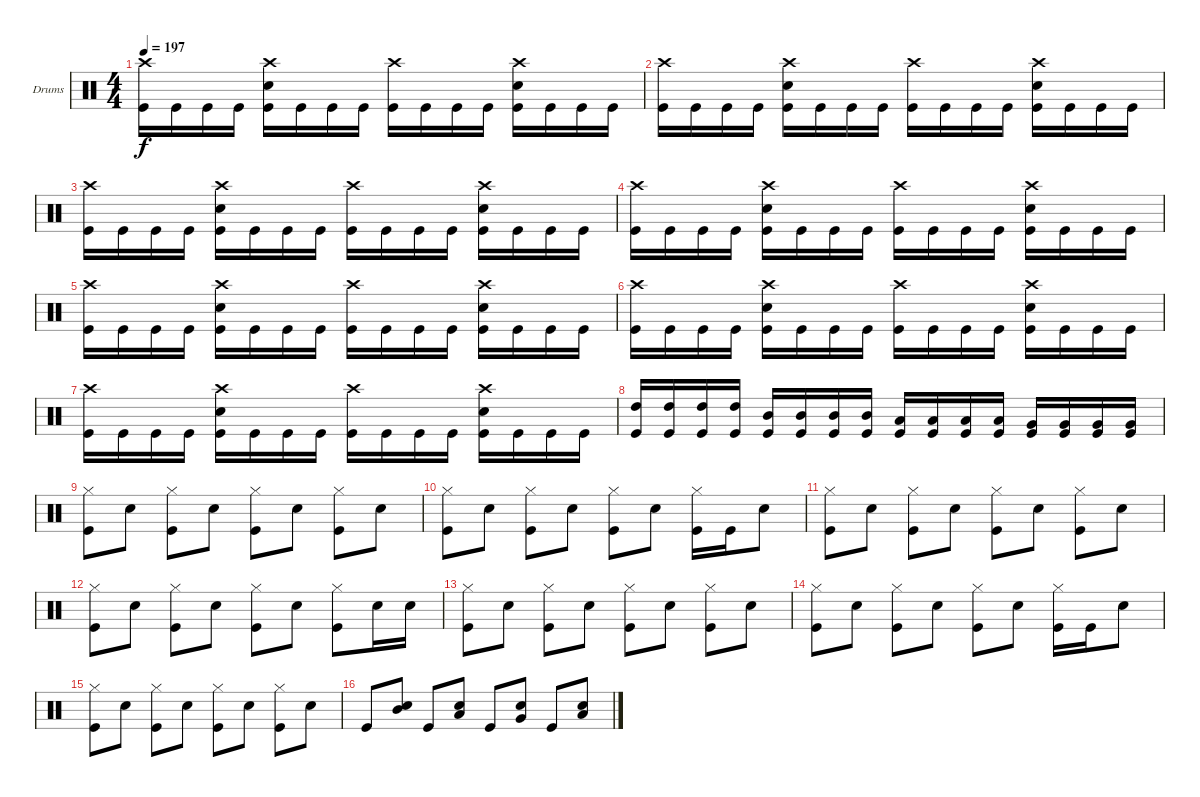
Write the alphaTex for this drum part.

\bracketExtendMode groupsimilarinstruments
\firstSystemTrackNameOrientation horizontal
\otherSystemsTrackNameOrientation horizontal
\track ("Drumkit" "Drums") {instrument percussion}
\staff {score}
\articulation defaults
\ts (4 4)
\tempo 197
\clef neutral
\ks c
("Crash high (hit)" "Kick (hit)").16{dy f} "Kick (hit)".16 "Kick (hit)".16 "Kick (hit)".16 ("Crash high (hit)" "Snare (hit) 2" "Kick (hit)").16 "Kick (hit)".16 "Kick (hit)".16 "Kick (hit)".16 ("Crash high (hit)" "Kick (hit)").16 "Kick (hit)".16 "Kick (hit)".16 "Kick (hit)".16 ("Crash high (hit)" "Snare (hit) 2" "Kick (hit)").16 "Kick (hit)".16 "Kick (hit)".16 "Kick (hit)".16 |
("Crash high (hit)" "Kick (hit)").16 "Kick (hit)".16 "Kick (hit)".16 "Kick (hit)".16 ("Crash high (hit)" "Snare (hit) 2" "Kick (hit)").16 "Kick (hit)".16 "Kick (hit)".16 "Kick (hit)".16 ("Crash high (hit)" "Kick (hit)").16 "Kick (hit)".16 "Kick (hit)".16 "Kick (hit)".16 ("Crash high (hit)" "Snare (hit) 2" "Kick (hit)").16 "Kick (hit)".16 "Kick (hit)".16 "Kick (hit)".16 |
("Crash high (hit)" "Kick (hit)").16 "Kick (hit)".16 "Kick (hit)".16 "Kick (hit)".16 ("Crash high (hit)" "Snare (hit) 2" "Kick (hit)").16 "Kick (hit)".16 "Kick (hit)".16 "Kick (hit)".16 ("Crash high (hit)" "Kick (hit)").16 "Kick (hit)".16 "Kick (hit)".16 "Kick (hit)".16 ("Crash high (hit)" "Snare (hit) 2" "Kick (hit)").16 "Kick (hit)".16 "Kick (hit)".16 "Kick (hit)".16 |
("Crash high (hit)" "Kick (hit)").16 "Kick (hit)".16 "Kick (hit)".16 "Kick (hit)".16 ("Crash high (hit)" "Snare (hit) 2" "Kick (hit)").16 "Kick (hit)".16 "Kick (hit)".16 "Kick (hit)".16 ("Crash high (hit)" "Kick (hit)").16 "Kick (hit)".16 "Kick (hit)".16 "Kick (hit)".16 ("Crash high (hit)" "Snare (hit) 2" "Kick (hit)").16 "Kick (hit)".16 "Kick (hit)".16 "Kick (hit)".16 |
("Crash high (hit)" "Kick (hit)").16 "Kick (hit)".16 "Kick (hit)".16 "Kick (hit)".16 ("Crash high (hit)" "Snare (hit) 2" "Kick (hit)").16 "Kick (hit)".16 "Kick (hit)".16 "Kick (hit)".16 ("Crash high (hit)" "Kick (hit)").16 "Kick (hit)".16 "Kick (hit)".16 "Kick (hit)".16 ("Crash high (hit)" "Snare (hit) 2" "Kick (hit)").16 "Kick (hit)".16 "Kick (hit)".16 "Kick (hit)".16 |
("Crash high (hit)" "Kick (hit)").16 "Kick (hit)".16 "Kick (hit)".16 "Kick (hit)".16 ("Crash high (hit)" "Snare (hit) 2" "Kick (hit)").16 "Kick (hit)".16 "Kick (hit)".16 "Kick (hit)".16 ("Crash high (hit)" "Kick (hit)").16 "Kick (hit)".16 "Kick (hit)".16 "Kick (hit)".16 ("Crash high (hit)" "Snare (hit) 2" "Kick (hit)").16 "Kick (hit)".16 "Kick (hit)".16 "Kick (hit)".16 |
("Crash high (hit)" "Kick (hit)").16 "Kick (hit)".16 "Kick (hit)".16 "Kick (hit)".16 ("Crash high (hit)" "Snare (hit) 2" "Kick (hit)").16 "Kick (hit)".16 "Kick (hit)".16 "Kick (hit)".16 ("Crash high (hit)" "Kick (hit)").16 "Kick (hit)".16 "Kick (hit)".16 "Kick (hit)".16 ("Crash high (hit)" "Snare (hit) 2" "Kick (hit)").16 "Kick (hit)".16 "Kick (hit)".16 "Kick (hit)".16 |
("High Tom (hit)" "Kick (hit)").16 ("High Tom (hit)" "Kick (hit)").16 ("High Tom (hit)" "Kick (hit)").16 ("High Tom (hit)" "Kick (hit)").16 ("Mid Tom (hit)" "Kick (hit)").16 ("Mid Tom (hit)" "Kick (hit)").16 ("Mid Tom (hit)" "Kick (hit)").16 ("Mid Tom (hit)" "Kick (hit)").16 ("Low Tom (hit)" "Kick (hit)").16 ("Low Tom (hit)" "Kick (hit)").16 ("Low Tom (hit)" "Kick (hit)").16 ("Low Tom (hit)" "Kick (hit)").16 ("Very Low Tom (hit)" "Kick (hit)").16 ("Very Low Tom (hit)" "Kick (hit)").16 ("Very Low Tom (hit)" "Kick (hit)").16 ("Very Low Tom (hit)" "Kick (hit)").16 |
("Hi-Hat (closed)" "Kick (hit)").8 "Snare (hit) 2".8 ("Hi-Hat (closed)" "Kick (hit)").8 "Snare (hit) 2".8 ("Hi-Hat (closed)" "Kick (hit)").8 "Snare (hit) 2".8 ("Hi-Hat (closed)" "Kick (hit)").8 "Snare (hit) 2".8 |
("Hi-Hat (closed)" "Kick (hit)").8 "Snare (hit) 2".8 ("Hi-Hat (closed)" "Kick (hit)").8 "Snare (hit) 2".8 ("Hi-Hat (closed)" "Kick (hit)").8 "Snare (hit) 2".8 ("Hi-Hat (closed)" "Kick (hit)").16 "Kick (hit)".16 "Snare (hit) 2".8 |
("Hi-Hat (closed)" "Kick (hit)").8 "Snare (hit) 2".8 ("Hi-Hat (closed)" "Kick (hit)").8 "Snare (hit) 2".8 ("Hi-Hat (closed)" "Kick (hit)").8 "Snare (hit) 2".8 ("Hi-Hat (closed)" "Kick (hit)").8 "Snare (hit) 2".8 |
("Hi-Hat (closed)" "Kick (hit)").8 "Snare (hit) 2".8 ("Hi-Hat (closed)" "Kick (hit)").8 "Snare (hit) 2".8 ("Hi-Hat (closed)" "Kick (hit)").8 "Snare (hit) 2".8 ("Hi-Hat (closed)" "Kick (hit)").8 "Snare (hit) 2".16 "Snare (hit) 2".16 |
("Hi-Hat (closed)" "Kick (hit)").8 "Snare (hit) 2".8 ("Hi-Hat (closed)" "Kick (hit)").8 "Snare (hit) 2".8 ("Hi-Hat (closed)" "Kick (hit)").8 "Snare (hit) 2".8 ("Hi-Hat (closed)" "Kick (hit)").8 "Snare (hit) 2".8 |
("Hi-Hat (closed)" "Kick (hit)").8 "Snare (hit) 2".8 ("Hi-Hat (closed)" "Kick (hit)").8 "Snare (hit) 2".8 ("Hi-Hat (closed)" "Kick (hit)").8 "Snare (hit) 2".8 ("Hi-Hat (closed)" "Kick (hit)").16 "Kick (hit)".16 "Snare (hit) 2".8 |
("Hi-Hat (closed)" "Kick (hit)").8 "Snare (hit) 2".8 ("Hi-Hat (closed)" "Kick (hit)").8 "Snare (hit) 2".8 ("Hi-Hat (closed)" "Kick (hit)").8 "Snare (hit) 2".8 ("Hi-Hat (closed)" "Kick (hit)").8 "Snare (hit) 2".8 |
"Kick (hit)".8 ("Snare (hit) 2" "Mid Tom (hit)").8 "Kick (hit)".8 ("Snare (hit) 2" "Low Tom (hit)").8 "Kick (hit)".8 ("Snare (hit) 2" "Very Low Tom (hit)").8 "Kick (hit)".8 ("Snare (hit) 2" "Low Tom (hit)").8
